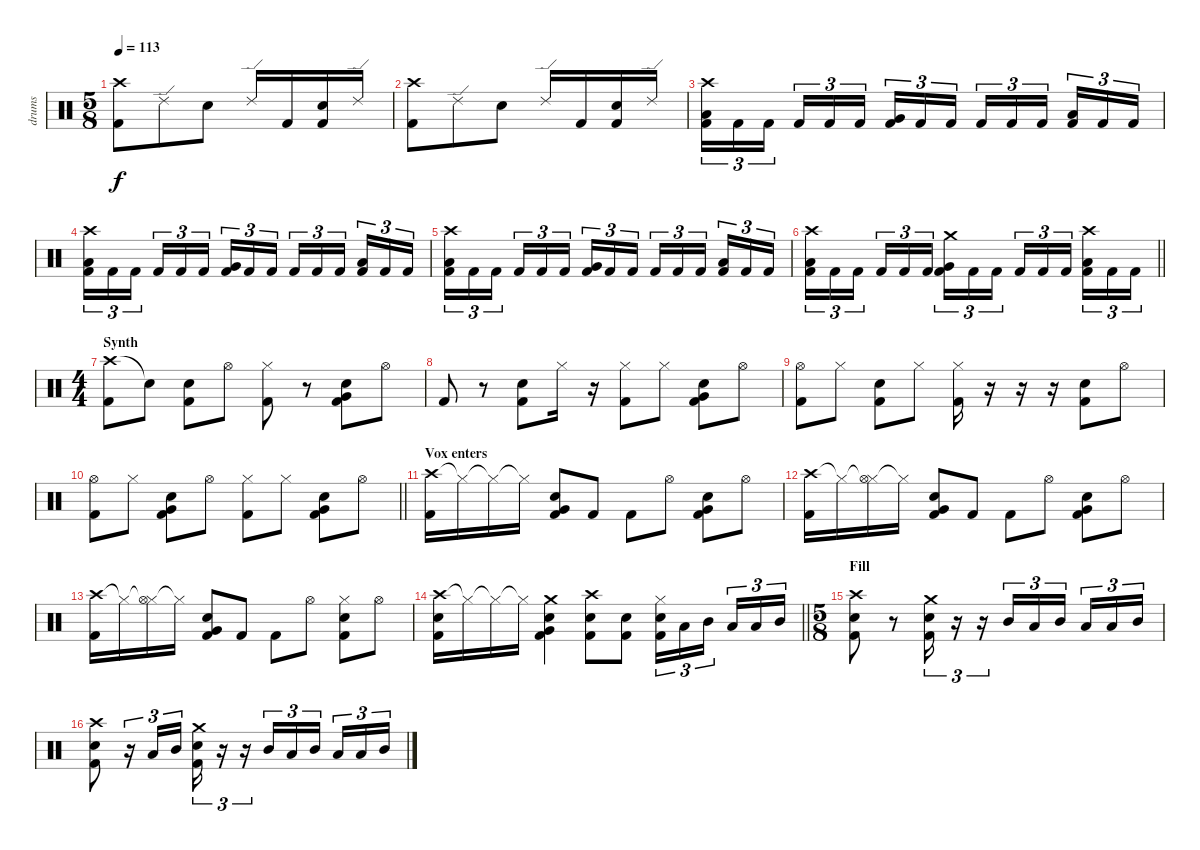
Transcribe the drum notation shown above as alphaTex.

\track ("drums" "drums") {instrument percussion}
\staff {score}
\articulation defaults
\ts (5 8)
\tempo 113
\clef neutral
\ks c
("Crash high (hit)" "Kick (hit) 2").8{dy f} "Ride (edge) 2".8 "Electric Snare (hit)".8 "Ride (edge) 2".16 "Kick (hit) 2".16 ("Electric Snare (hit)" "Kick (hit) 2").16 "Ride (edge) 2".16 |
("Crash high (hit)" "Kick (hit) 2").8 "Ride (edge) 2".8 "Electric Snare (hit)".8 "Ride (edge) 2".16 "Kick (hit) 2".16 ("Electric Snare (hit)" "Kick (hit) 2").16 "Ride (edge) 2".16 |
("Crash high (hit)" "Low Tom (hit)" "Kick (hit) 2").16{tu (3 2)} "Kick (hit) 2".16{tu (3 2)} "Kick (hit) 2".16{tu (3 2)} "Kick (hit) 2".16{tu (3 2)} "Kick (hit) 2".16{tu (3 2)} "Kick (hit) 2".16{tu (3 2)} ("Very Low Tom (hit)" "Kick (hit) 2").16{tu (3 2)} "Kick (hit) 2".16{tu (3 2)} "Kick (hit) 2".16{tu (3 2)} "Kick (hit) 2".16{tu (3 2)} "Kick (hit) 2".16{tu (3 2)} "Kick (hit) 2".16{tu (3 2)} ("Low Tom (hit)" "Kick (hit) 2").16{tu (3 2)} "Kick (hit) 2".16{tu (3 2)} "Kick (hit) 2".16{tu (3 2)} |
("Crash high (hit)" "Low Tom (hit)" "Kick (hit) 2").16{tu (3 2)} "Kick (hit) 2".16{tu (3 2)} "Kick (hit) 2".16{tu (3 2)} "Kick (hit) 2".16{tu (3 2)} "Kick (hit) 2".16{tu (3 2)} "Kick (hit) 2".16{tu (3 2)} ("Very Low Tom (hit)" "Kick (hit) 2").16{tu (3 2)} "Kick (hit) 2".16{tu (3 2)} "Kick (hit) 2".16{tu (3 2)} "Kick (hit) 2".16{tu (3 2)} "Kick (hit) 2".16{tu (3 2)} "Kick (hit) 2".16{tu (3 2)} ("Low Tom (hit)" "Kick (hit) 2").16{tu (3 2)} "Kick (hit) 2".16{tu (3 2)} "Kick (hit) 2".16{tu (3 2)} |
("Crash high (hit)" "Low Tom (hit)" "Kick (hit) 2").16{tu (3 2)} "Kick (hit) 2".16{tu (3 2)} "Kick (hit) 2".16{tu (3 2)} "Kick (hit) 2".16{tu (3 2)} "Kick (hit) 2".16{tu (3 2)} "Kick (hit) 2".16{tu (3 2)} ("Very Low Tom (hit)" "Kick (hit) 2").16{tu (3 2)} "Kick (hit) 2".16{tu (3 2)} "Kick (hit) 2".16{tu (3 2)} "Kick (hit) 2".16{tu (3 2)} "Kick (hit) 2".16{tu (3 2)} "Kick (hit) 2".16{tu (3 2)} ("Low Tom (hit)" "Kick (hit) 2").16{tu (3 2)} "Kick (hit) 2".16{tu (3 2)} "Kick (hit) 2".16{tu (3 2)} |
\barLineRight lightlight
("Crash high (hit)" "Low Tom (hit)" "Kick (hit) 2").16{tu (3 2)} "Kick (hit) 2".16{tu (3 2)} "Kick (hit) 2".16{tu (3 2)} "Kick (hit) 2".16{tu (3 2)} "Kick (hit) 2".16{tu (3 2)} "Kick (hit) 2".16{tu (3 2)} ("Crash medium (hit)" "Very Low Tom (hit)" "Kick (hit) 2").16{tu (3 2)} "Kick (hit) 2".16{tu (3 2)} "Kick (hit) 2".16{tu (3 2)} "Kick (hit) 2".16{tu (3 2)} "Kick (hit) 2".16{tu (3 2)} "Kick (hit) 2".16{tu (3 2)} ("Crash high (hit)" "Low Tom (hit)" "Kick (hit) 2").16{tu (3 2)} "Kick (hit) 2".16{tu (3 2)} "Kick (hit) 2".16{tu (3 2)} |
\ts (4 4)
\section ("" "Synth")
("Crash high (hit)" "Kick (hit) 2").8 "Snare (hit)"{t}.8 ("Electric Snare (hit)" "Kick (hit) 2").8 "Hi-Hat (open)".8 ("Hi-Hat (closed)" "Kick (hit) 2").8 r.8 ("Electric Snare (hit)" "Very Low Tom (hit)" "Kick (hit) 2").8 "Hi-Hat (open)".8 |
"Kick (hit) 2".8 r.8 ("Electric Snare (hit)" "Kick (hit) 2").8 "Hi-Hat (closed)".16 r.16 ("Hi-Hat (closed)" "Kick (hit) 2").8 "Hi-Hat (closed)".8 ("Electric Snare (hit)" "Very Low Tom (hit)" "Kick (hit) 2").8 "Hi-Hat (open)".8 |
("Hi-Hat (open)" "Kick (hit) 2").8 "Hi-Hat (closed)".8 ("Electric Snare (hit)" "Kick (hit) 2").8 "Hi-Hat (closed)".8 ("Hi-Hat (closed)" "Kick (hit) 2").16 r.16 r.16 r.16 ("Electric Snare (hit)" "Kick (hit) 2").8 "Hi-Hat (open)".8 |
\barLineRight lightlight
("Hi-Hat (open)" "Kick (hit) 2").8 "Hi-Hat (closed)".8 ("Electric Snare (hit)" "Very Low Tom (hit)" "Kick (hit) 2").8 "Hi-Hat (open)".8 ("Hi-Hat (closed)" "Kick (hit) 2").8 "Hi-Hat (closed)".8 ("Electric Snare (hit)" "Very Low Tom (hit)" "Kick (hit) 2").8 "Hi-Hat (open)".8 |
\section ("" "Vox enters")
("Crash high (hit)" "Kick (hit) 2").16 "Hi-Hat (closed)"{t}.16 "Hi-Hat (closed)"{t}.16 "Hi-Hat (closed)"{t}.16 ("Electric Snare (hit)" "Very Low Tom (hit)" "Kick (hit) 2").8 "Kick (hit) 2".8 "Kick (hit) 2".8 "Hi-Hat (open)".8 ("Electric Snare (hit)" "Very Low Tom (hit)" "Kick (hit) 2").8 "Hi-Hat (open)".8 |
("Crash high (hit)" "Kick (hit) 2").16 "Hi-Hat (closed)"{t}.16 ("Hi-Hat (closed)"{t} "Hi-Hat (open)").16 "Hi-Hat (closed)"{t}.16 ("Electric Snare (hit)" "Very Low Tom (hit)" "Kick (hit) 2").8 "Kick (hit) 2".8 "Kick (hit) 2".8 "Hi-Hat (open)".8 ("Electric Snare (hit)" "Very Low Tom (hit)" "Kick (hit) 2").8 "Hi-Hat (open)".8 |
("Crash high (hit)" "Kick (hit) 2").16 "Hi-Hat (closed)"{t}.16 ("Hi-Hat (closed)"{t} "Hi-Hat (open)").16 "Hi-Hat (closed)"{t}.16 ("Electric Snare (hit)" "Very Low Tom (hit)" "Kick (hit) 2").8 "Kick (hit) 2".8 "Kick (hit) 2".8 "Hi-Hat (open)".8 ("Hi-Hat (closed)" "Electric Snare (hit)" "Kick (hit) 2").8 "Hi-Hat (open)".8 |
\barLineRight lightlight
("Crash high (hit)" "Kick (hit) 2" "Electric Snare (hit)").16 "Hi-Hat (closed)"{t}.16 "Hi-Hat (closed)"{t}.16 "Hi-Hat (closed)"{t}.16 ("Crash medium (hit)" "Electric Snare (hit)" "Very Low Tom (hit)" "Kick (hit) 2").4 ("Crash high (hit)" "Electric Snare (hit)" "Kick (hit) 2").8 ("Electric Snare (hit)" "Kick (hit) 2").8 ("Hi-Hat (closed)" "Electric Snare (hit)" "Kick (hit) 2").16{tu (3 2)} "Low Tom (hit)".16{tu (3 2)} "Mid Tom (hit)".16{tu (3 2)} "Low Tom (hit)".16{tu (3 2)} "Low Tom (hit)".16{tu (3 2)} "Mid Tom (hit)".16{tu (3 2)} |
\ts (5 8)
\section ("" "Fill")
("Crash high (hit)" "Electric Snare (hit)" "Kick (hit) 2").8 r.8 ("Crash medium (hit)" "Electric Snare (hit)" "Kick (hit) 2").16{tu (3 2)} r.16{tu (3 2)} r.16{tu (3 2)} "Mid Tom (hit)".16{tu (3 2)} "Low Tom (hit)".16{tu (3 2)} "Mid Tom (hit)".16{tu (3 2)} "Low Tom (hit)".16{tu (3 2)} "Low Tom (hit)".16{tu (3 2)} "Mid Tom (hit)".16{tu (3 2)} |
("Crash high (hit)" "Electric Snare (hit)" "Kick (hit) 2").8 r.16{tu (3 2)} "Low Tom (hit)".16{tu (3 2)} "Mid Tom (hit)".16{tu (3 2)} ("Crash medium (hit)" "Electric Snare (hit)" "Kick (hit) 2").16{tu (3 2)} r.16{tu (3 2)} r.16{tu (3 2)} "Mid Tom (hit)".16{tu (3 2)} "Low Tom (hit)".16{tu (3 2)} "Mid Tom (hit)".16{tu (3 2)} "Low Tom (hit)".16{tu (3 2)} "Low Tom (hit)".16{tu (3 2)} "Mid Tom (hit)".16{tu (3 2)}
